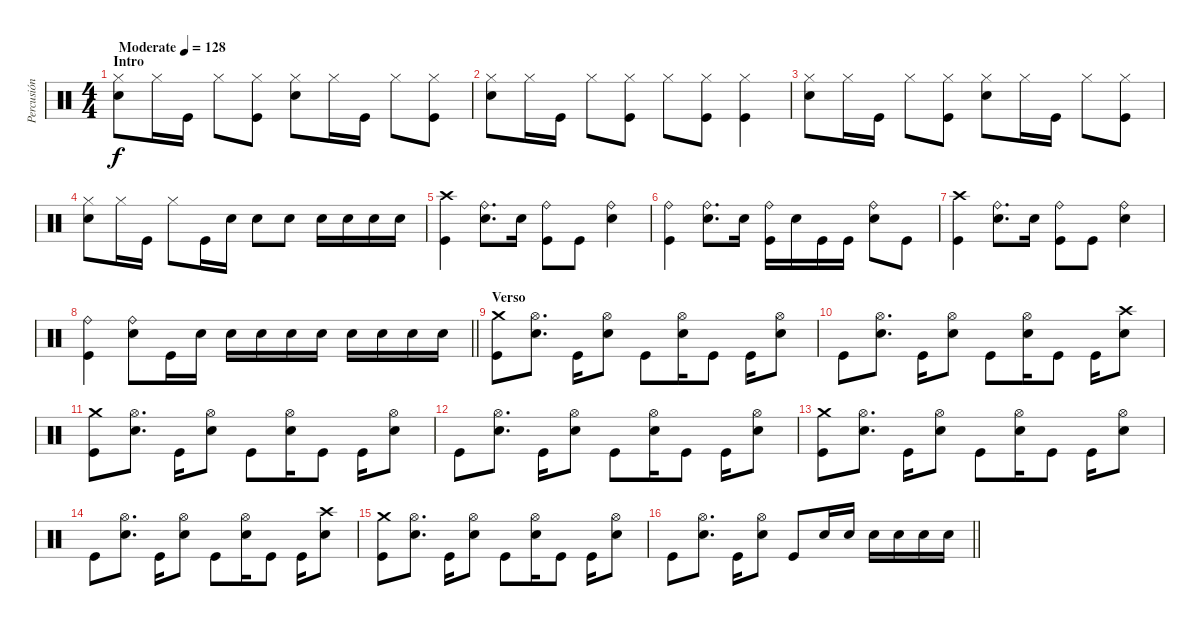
\track ("Percusión" "Percusión") {instrument percussion}
\staff {score}
\articulation defaults
\ts (4 4)
\section ("" "Intro")
\tempo (128 "Moderate")
\clef neutral
\ks c
("Hi-Hat (closed)" "Snare (hit) 2").8{dy f} "Hi-Hat (closed)".16 "Kick (hit)".16 "Hi-Hat (closed)".8 ("Hi-Hat (closed)" "Kick (hit)").8 ("Hi-Hat (closed)" "Snare (hit) 2").8 "Hi-Hat (closed)".16 "Kick (hit)".16 "Hi-Hat (closed)".8 ("Hi-Hat (closed)" "Kick (hit)").8 |
("Hi-Hat (closed)" "Snare (hit) 2").8 "Hi-Hat (closed)".16 "Kick (hit)".16 "Hi-Hat (closed)".8 ("Hi-Hat (closed)" "Kick (hit)").8 "Hi-Hat (closed)".8 ("Hi-Hat (closed)" "Kick (hit)").8 ("Hi-Hat (closed)" "Kick (hit)").4 |
("Hi-Hat (closed)" "Snare (hit) 2").8 "Hi-Hat (closed)".16 "Kick (hit)".16 "Hi-Hat (closed)".8 ("Hi-Hat (closed)" "Kick (hit)").8 ("Hi-Hat (closed)" "Snare (hit) 2").8 "Hi-Hat (closed)".16 "Kick (hit)".16 "Hi-Hat (closed)".8 ("Hi-Hat (closed)" "Kick (hit)").8 |
("Hi-Hat (closed)" "Snare (hit) 2").8 "Hi-Hat (closed)".16 "Kick (hit)".16 "Hi-Hat (closed)".8 "Kick (hit)".16 "Snare (hit) 2".16 "Snare (hit) 2".8 "Snare (hit) 2".8 "Snare (hit) 2".16 "Snare (hit) 2".16 "Snare (hit) 2".16 "Snare (hit) 2".16 |
("Crash high (hit)" "Kick (hit)").4 ("Ride (bell)" "Snare (hit) 2").8{d} "Snare (hit) 2".16 ("Ride (bell)" "Kick (hit)").8 "Kick (hit)".8 ("Ride (bell)" "Snare (hit) 2").4 |
("Ride (bell)" "Kick (hit)").4 ("Ride (bell)" "Snare (hit) 2").8{d} "Snare (hit) 2".16 ("Ride (bell)" "Kick (hit)").16 "Snare (hit) 2".16 "Kick (hit)".16 "Kick (hit)".16 ("Ride (bell)" "Snare (hit) 2").8 "Kick (hit)".8 |
("Crash high (hit)" "Kick (hit)").4 ("Ride (bell)" "Snare (hit) 2").8{d} "Snare (hit) 2".16 ("Ride (bell)" "Kick (hit)").8 "Kick (hit)".8 ("Ride (bell)" "Snare (hit) 2").4 |
\barLineRight lightlight
("Ride (bell)" "Kick (hit)").4 ("Ride (bell)" "Snare (hit) 2").8 "Kick (hit)".16 "Snare (hit) 2".16 "Snare (hit) 2".16 "Snare (hit) 2".16 "Snare (hit) 2".16 "Snare (hit) 2".16 "Snare (hit) 2".16 "Snare (hit) 2".16 "Snare (hit) 2".16 "Snare (hit) 2".16 |
\section ("" "Verso")
("Crash medium (hit)" "Kick (hit)").8 ("Hi-Hat (open)" "Snare (hit) 2").8{d} "Kick (hit)".16 ("Hi-Hat (open)" "Snare (hit) 2").8 "Kick (hit)".8 ("Hi-Hat (open)" "Snare (hit) 2").16 "Kick (hit)".8 "Kick (hit)".16 ("Hi-Hat (open)" "Snare (hit) 2").8 |
"Kick (hit)".8 ("Hi-Hat (open)" "Snare (hit) 2").8{d} "Kick (hit)".16 ("Hi-Hat (open)" "Snare (hit) 2").8 "Kick (hit)".8 ("Hi-Hat (open)" "Snare (hit) 2").16 "Kick (hit)".8 "Kick (hit)".16 ("Crash high (hit)" "Snare (hit) 2").8 |
("Crash medium (hit)" "Kick (hit)").8 ("Hi-Hat (open)" "Snare (hit) 2").8{d} "Kick (hit)".16 ("Hi-Hat (open)" "Snare (hit) 2").8 "Kick (hit)".8 ("Hi-Hat (open)" "Snare (hit) 2").16 "Kick (hit)".8 "Kick (hit)".16 ("Hi-Hat (open)" "Snare (hit) 2").8 |
"Kick (hit)".8 ("Hi-Hat (open)" "Snare (hit) 2").8{d} "Kick (hit)".16 ("Hi-Hat (open)" "Snare (hit) 2").8 "Kick (hit)".8 ("Hi-Hat (open)" "Snare (hit) 2").16 "Kick (hit)".8 "Kick (hit)".16 ("Hi-Hat (open)" "Snare (hit) 2").8 |
("Crash medium (hit)" "Kick (hit)").8 ("Hi-Hat (open)" "Snare (hit) 2").8{d} "Kick (hit)".16 ("Hi-Hat (open)" "Snare (hit) 2").8 "Kick (hit)".8 ("Hi-Hat (open)" "Snare (hit) 2").16 "Kick (hit)".8 "Kick (hit)".16 ("Hi-Hat (open)" "Snare (hit) 2").8 |
"Kick (hit)".8 ("Hi-Hat (open)" "Snare (hit) 2").8{d} "Kick (hit)".16 ("Hi-Hat (open)" "Snare (hit) 2").8 "Kick (hit)".8 ("Hi-Hat (open)" "Snare (hit) 2").16 "Kick (hit)".8 "Kick (hit)".16 ("Crash high (hit)" "Snare (hit) 2").8 |
("Crash medium (hit)" "Kick (hit)").8 ("Hi-Hat (open)" "Snare (hit) 2").8{d} "Kick (hit)".16 ("Hi-Hat (open)" "Snare (hit) 2").8 "Kick (hit)".8 ("Hi-Hat (open)" "Snare (hit) 2").16 "Kick (hit)".8 "Kick (hit)".16 ("Hi-Hat (open)" "Snare (hit) 2").8 |
\barLineRight lightlight "Kick (hit)".8
("Hi-Hat (open)" "Snare (hit) 2").8{d} "Kick (hit)".16 ("Hi-Hat (open)" "Snare (hit) 2").8 "Kick (hit)".8 "Snare (hit) 2".16 "Snare (hit) 2".16 "Snare (hit) 2".16 "Snare (hit) 2".16 "Snare (hit) 2".16 "Snare (hit) 2".16
